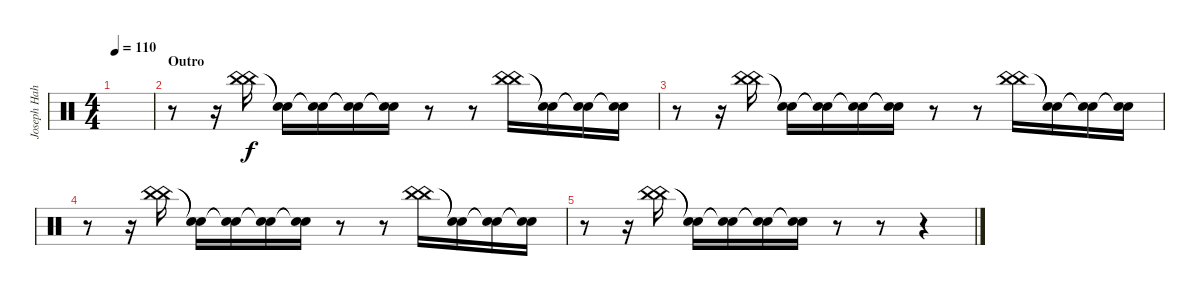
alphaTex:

\track ("Joseph Hahn (Turntables)" "Joseph Hah") {instrument percussion}
\staff {score}
\articulation defaults
\ts (4 4)
\tempo 110
\clef neutral
\ks c
|
\section ("" "Outro")
r.8 r.16 ("China (hit)" "China (hit)").16 ("Snare (hit)"{t} "Snare (hit)"{t}).16 ("Snare (hit)"{t} "Snare (hit)"{t}).16 ("Snare (hit)"{t} "Snare (hit)"{t}).16 ("Snare (hit)"{t} "Snare (hit)"{t}).16 r.8 r.8 ("China (hit)" "China (hit)").16 ("Snare (hit)"{t} "Snare (hit)"{t}).16 ("Snare (hit)"{t} "Snare (hit)"{t}).16 ("Snare (hit)"{t} "Snare (hit)"{t}).16 |
r.8 r.16 ("China (hit)" "China (hit)").16 ("Snare (hit)"{t} "Snare (hit)"{t}).16 ("Snare (hit)"{t} "Snare (hit)"{t}).16 ("Snare (hit)"{t} "Snare (hit)"{t}).16 ("Snare (hit)"{t} "Snare (hit)"{t}).16 r.8 r.8 ("China (hit)" "China (hit)").16 ("Snare (hit)"{t} "Snare (hit)"{t}).16 ("Snare (hit)"{t} "Snare (hit)"{t}).16 ("Snare (hit)"{t} "Snare (hit)"{t}).16 |
r.8 r.16 ("China (hit)" "China (hit)").16 ("Snare (hit)"{t} "Snare (hit)"{t}).16 ("Snare (hit)"{t} "Snare (hit)"{t}).16 ("Snare (hit)"{t} "Snare (hit)"{t}).16 ("Snare (hit)"{t} "Snare (hit)"{t}).16 r.8 r.8 ("China (hit)" "China (hit)").16 ("Snare (hit)"{t} "Snare (hit)"{t}).16 ("Snare (hit)"{t} "Snare (hit)"{t}).16 ("Snare (hit)"{t} "Snare (hit)"{t}).16 |
r.8 r.16 ("China (hit)" "China (hit)").16 ("Snare (hit)"{t} "Snare (hit)"{t}).16 ("Snare (hit)"{t} "Snare (hit)"{t}).16 ("Snare (hit)"{t} "Snare (hit)"{t}).16 ("Snare (hit)"{t} "Snare (hit)"{t}).16 r.8 r.8 r.4
